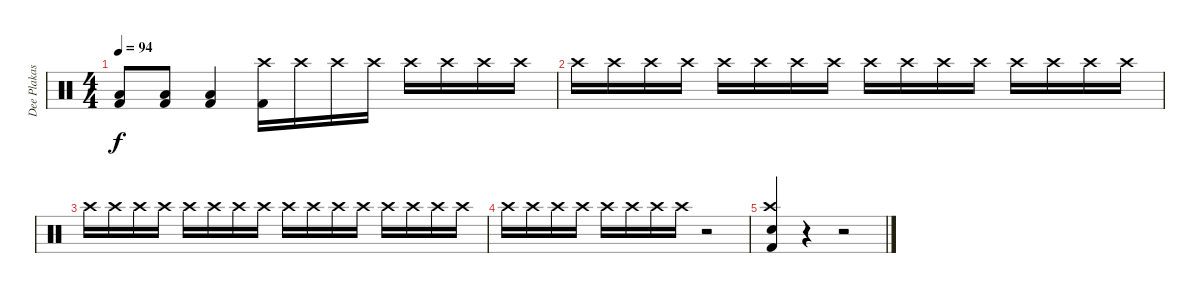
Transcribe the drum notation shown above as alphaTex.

\track ("Dee Plakas" "Dee Plakas") {instrument percussion}
\staff {score}
\articulation defaults
\ts (4 4)
\tempo 94
\clef neutral
\ks c
("Low Floor Tom (hit)" "Kick (hit) 2").8{dy f} ("Low Floor Tom (hit)" "Kick (hit) 2").8 ("Low Floor Tom (hit)" "Kick (hit) 2").4 ("Crash high (hit)" "Kick (hit) 2").16 "Crash high (hit)".16 "Crash high (hit)".16 "Crash high (hit)".16 "Crash high (hit)".16 "Crash high (hit)".16 "Crash high (hit)".16 "Crash high (hit)".16 |
"Crash high (hit)".16 "Crash high (hit)".16 "Crash high (hit)".16 "Crash high (hit)".16 "Crash high (hit)".16 "Crash high (hit)".16 "Crash high (hit)".16 "Crash high (hit)".16 "Crash high (hit)".16 "Crash high (hit)".16 "Crash high (hit)".16 "Crash high (hit)".16 "Crash high (hit)".16 "Crash high (hit)".16 "Crash high (hit)".16 "Crash high (hit)".16 |
"Crash high (hit)".16 "Crash high (hit)".16 "Crash high (hit)".16 "Crash high (hit)".16 "Crash high (hit)".16 "Crash high (hit)".16 "Crash high (hit)".16 "Crash high (hit)".16 "Crash high (hit)".16 "Crash high (hit)".16 "Crash high (hit)".16 "Crash high (hit)".16 "Crash high (hit)".16 "Crash high (hit)".16 "Crash high (hit)".16 "Crash high (hit)".16 |
"Crash high (hit)".16 "Crash high (hit)".16 "Crash high (hit)".16 "Crash high (hit)".16 "Crash high (hit)".16 "Crash high (hit)".16 "Crash high (hit)".16 "Crash high (hit)".16 r.2 |
("Crash high (hit)" "Snare (hit) 2" "Kick (hit) 2").4 r.4 r.2
